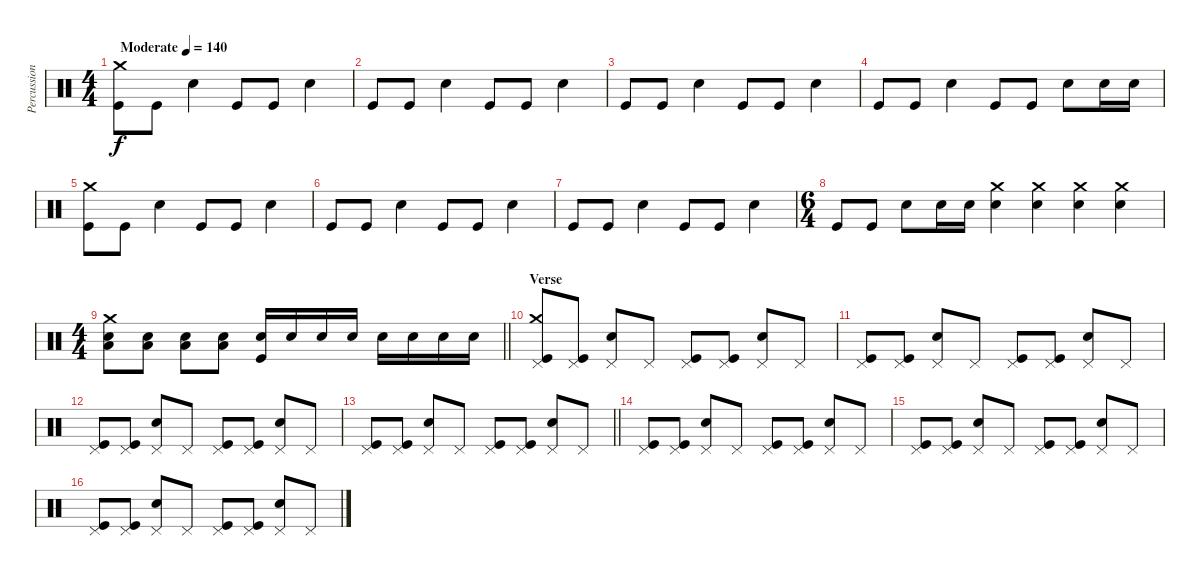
\track ("Percussion" "Percussion") {instrument percussion}
\staff {score}
\articulation defaults
\ts (4 4)
\tempo (140 "Moderate")
\clef neutral
\ks c
("Kick (hit)" "Crash medium (hit)").8{dy f} "Kick (hit)".8 "Electric Snare (hit)".4 "Kick (hit)".8 "Kick (hit)".8 "Electric Snare (hit)".4 |
"Kick (hit)".8 "Kick (hit)".8 "Electric Snare (hit)".4 "Kick (hit)".8 "Kick (hit)".8 "Electric Snare (hit)".4 |
"Kick (hit)".8 "Kick (hit)".8 "Electric Snare (hit)".4 "Kick (hit)".8 "Kick (hit)".8 "Electric Snare (hit)".4 |
"Kick (hit)".8 "Kick (hit)".8 "Electric Snare (hit)".4 "Kick (hit)".8 "Kick (hit)".8 "Electric Snare (hit)".8 "Electric Snare (hit)".16 "Electric Snare (hit)".16 |
("Kick (hit)" "Crash medium (hit)").8 "Kick (hit)".8 "Electric Snare (hit)".4 "Kick (hit)".8 "Kick (hit)".8 "Electric Snare (hit)".4 |
"Kick (hit)".8 "Kick (hit)".8 "Electric Snare (hit)".4 "Kick (hit)".8 "Kick (hit)".8 "Electric Snare (hit)".4 |
"Kick (hit)".8 "Kick (hit)".8 "Electric Snare (hit)".4 "Kick (hit)".8 "Kick (hit)".8 "Electric Snare (hit)".4 |
\ts (6 4)
"Kick (hit)".8 "Kick (hit)".8 "Electric Snare (hit)".8 "Electric Snare (hit)".16 "Electric Snare (hit)".16 ("Electric Snare (hit)" "Crash medium (hit)").4 ("Electric Snare (hit)" "Crash medium (hit)").4 ("Electric Snare (hit)" "Crash medium (hit)").4 ("Electric Snare (hit)" "Crash medium (hit)").4 |
\ts (4 4)
\barLineRight lightlight
("Electric Snare (hit)" "Low Tom (hit)" "Crash medium (hit)").8 ("Electric Snare (hit)" "Low Tom (hit)").8 ("Electric Snare (hit)" "Low Tom (hit)").8 ("Electric Snare (hit)" "Low Tom (hit)").8 ("Electric Snare (hit)" "Kick (hit)").16 "Electric Snare (hit)".16 "Electric Snare (hit)".16 "Electric Snare (hit)".16 "Electric Snare (hit)".16 "Electric Snare (hit)".16 "Electric Snare (hit)".16 "Electric Snare (hit)".16 |
\section ("" "Verse")
("Pedal Hi-Hat (hit)" "Kick (hit)" "Crash medium (hit)").8 ("Pedal Hi-Hat (hit)" "Kick (hit)").8 ("Pedal Hi-Hat (hit)" "Electric Snare (hit)").8 "Pedal Hi-Hat (hit)".8 ("Pedal Hi-Hat (hit)" "Kick (hit)").8 ("Pedal Hi-Hat (hit)" "Kick (hit)").8 ("Pedal Hi-Hat (hit)" "Electric Snare (hit)").8 "Pedal Hi-Hat (hit)".8 |
("Pedal Hi-Hat (hit)" "Kick (hit)").8 ("Pedal Hi-Hat (hit)" "Kick (hit)").8 ("Pedal Hi-Hat (hit)" "Electric Snare (hit)").8 "Pedal Hi-Hat (hit)".8 ("Pedal Hi-Hat (hit)" "Kick (hit)").8 ("Pedal Hi-Hat (hit)" "Kick (hit)").8 ("Pedal Hi-Hat (hit)" "Electric Snare (hit)").8 "Pedal Hi-Hat (hit)".8 |
("Pedal Hi-Hat (hit)" "Kick (hit)").8 ("Pedal Hi-Hat (hit)" "Kick (hit)").8 ("Pedal Hi-Hat (hit)" "Electric Snare (hit)").8 "Pedal Hi-Hat (hit)".8 ("Pedal Hi-Hat (hit)" "Kick (hit)").8 ("Pedal Hi-Hat (hit)" "Kick (hit)").8 ("Pedal Hi-Hat (hit)" "Electric Snare (hit)").8 "Pedal Hi-Hat (hit)".8 |
\barLineRight lightlight
("Pedal Hi-Hat (hit)" "Kick (hit)").8 ("Pedal Hi-Hat (hit)" "Kick (hit)").8 ("Pedal Hi-Hat (hit)" "Electric Snare (hit)").8 "Pedal Hi-Hat (hit)".8 ("Pedal Hi-Hat (hit)" "Kick (hit)").8 ("Pedal Hi-Hat (hit)" "Kick (hit)").8 ("Pedal Hi-Hat (hit)" "Electric Snare (hit)").8 "Pedal Hi-Hat (hit)".8 |
("Pedal Hi-Hat (hit)" "Kick (hit)").8 ("Pedal Hi-Hat (hit)" "Kick (hit)").8 ("Pedal Hi-Hat (hit)" "Electric Snare (hit)").8 "Pedal Hi-Hat (hit)".8 ("Pedal Hi-Hat (hit)" "Kick (hit)").8 ("Pedal Hi-Hat (hit)" "Kick (hit)").8 ("Pedal Hi-Hat (hit)" "Electric Snare (hit)").8 "Pedal Hi-Hat (hit)".8 |
("Pedal Hi-Hat (hit)" "Kick (hit)").8 ("Pedal Hi-Hat (hit)" "Kick (hit)").8 ("Pedal Hi-Hat (hit)" "Electric Snare (hit)").8 "Pedal Hi-Hat (hit)".8 ("Pedal Hi-Hat (hit)" "Kick (hit)").8 ("Pedal Hi-Hat (hit)" "Kick (hit)").8 ("Pedal Hi-Hat (hit)" "Electric Snare (hit)").8 "Pedal Hi-Hat (hit)".8 |
("Pedal Hi-Hat (hit)" "Kick (hit)").8 ("Pedal Hi-Hat (hit)" "Kick (hit)").8 ("Pedal Hi-Hat (hit)" "Electric Snare (hit)").8 "Pedal Hi-Hat (hit)".8 ("Pedal Hi-Hat (hit)" "Kick (hit)").8 ("Pedal Hi-Hat (hit)" "Kick (hit)").8 ("Pedal Hi-Hat (hit)" "Electric Snare (hit)").8 "Pedal Hi-Hat (hit)".8
